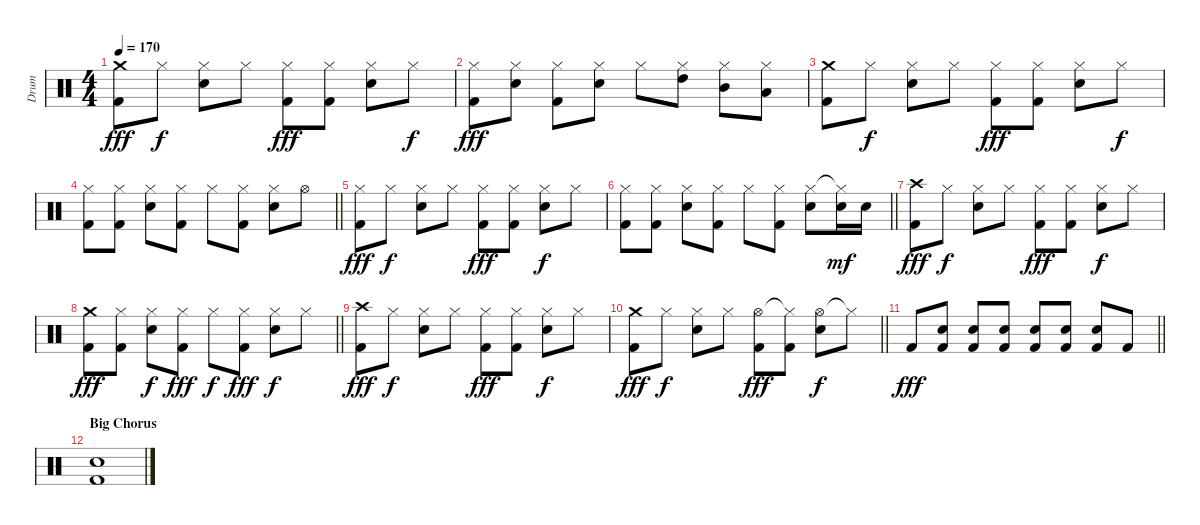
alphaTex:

\track ("Drum" "Drum") {instrument percussion}
\staff {score}
\articulation defaults
\ts (4 4)
\tempo 170
\clef neutral
\ks c
("Crash medium (hit)" "Kick (hit) 2").8{dy fff} "Hi-Hat (closed)".8{dy f} ("Hi-Hat (closed)" "Snare (hit) 2").8 "Hi-Hat (closed)".8 ("Hi-Hat (closed)" "Kick (hit) 2").8{dy fff} ("Hi-Hat (closed)" "Kick (hit) 2").8 ("Hi-Hat (closed)" "Snare (hit) 2").8 "Hi-Hat (closed)".8{dy f} |
("Hi-Hat (closed)" "Kick (hit) 2").8{dy fff} ("Hi-Hat (closed)" "Snare (hit) 2").8 ("Hi-Hat (closed)" "Kick (hit) 2").8 ("Hi-Hat (closed)" "Snare (hit) 2").8 "Hi-Hat (closed)".8 ("Hi-Hat (closed)" "High Tom (hit)").8 ("Hi-Hat (closed)" "Mid Tom (hit)").8 ("Hi-Hat (closed)" "Low Tom (hit)").8 |
("Crash medium (hit)" "Kick (hit) 2").8 "Hi-Hat (closed)".8{dy f} ("Hi-Hat (closed)" "Snare (hit) 2").8 "Hi-Hat (closed)".8 ("Hi-Hat (closed)" "Kick (hit) 2").8{dy fff} ("Hi-Hat (closed)" "Kick (hit) 2").8 ("Hi-Hat (closed)" "Snare (hit) 2").8 "Hi-Hat (closed)".8{dy f} |
\barLineRight lightlight
("Hi-Hat (closed)" "Kick (hit) 2").8 ("Hi-Hat (closed)" "Kick (hit) 2").8 ("Hi-Hat (closed)" "Snare (hit) 2").8 ("Hi-Hat (closed)" "Kick (hit) 2").8 "Hi-Hat (closed)".8 ("Hi-Hat (closed)" "Kick (hit) 2").8 ("Hi-Hat (closed)" "Snare (hit) 2").8 "Hi-Hat (open)".8 |
("Hi-Hat (closed)" "Kick (hit) 2").8{dy fff} "Hi-Hat (closed)".8{dy f} ("Hi-Hat (closed)" "Snare (hit) 2").8 "Hi-Hat (closed)".8 ("Hi-Hat (closed)" "Kick (hit) 2").8{dy fff} ("Hi-Hat (closed)" "Kick (hit) 2").8 ("Hi-Hat (closed)" "Snare (hit) 2").8{dy f} "Hi-Hat (closed)".8 |
\barLineRight lightlight
("Hi-Hat (closed)" "Kick (hit) 2").8 ("Hi-Hat (closed)" "Kick (hit) 2").8 ("Hi-Hat (closed)" "Snare (hit) 2").8 ("Hi-Hat (closed)" "Kick (hit) 2").8 "Hi-Hat (closed)".8 ("Hi-Hat (closed)" "Kick (hit) 2").8 ("Hi-Hat (closed)" "Snare (hit) 2").8 ("Hi-Hat (closed)"{t} "Snare (hit) 2").16{dy mf} "Snare (hit) 2".16 |
("Crash high (hit)" "Kick (hit) 2").8{dy fff} "Hi-Hat (closed)".8{dy f} ("Hi-Hat (closed)" "Snare (hit) 2").8 "Hi-Hat (closed)".8 ("Hi-Hat (closed)" "Kick (hit) 2").8{dy fff} ("Hi-Hat (closed)" "Kick (hit) 2").8 ("Hi-Hat (closed)" "Snare (hit) 2").8{dy f} "Hi-Hat (closed)".8 |
\barLineRight lightlight
("Crash medium (hit)" "Kick (hit) 2").8{dy fff} ("Hi-Hat (closed)" "Kick (hit) 2").8 ("Hi-Hat (closed)" "Snare (hit) 2").8{dy f} ("Hi-Hat (closed)" "Kick (hit) 2").8{dy fff} "Hi-Hat (closed)".8{dy f} ("Hi-Hat (closed)" "Kick (hit) 2").8{dy fff} ("Hi-Hat (closed)" "Snare (hit) 2").8{dy f} "Hi-Hat (closed)".8 |
("Crash high (hit)" "Kick (hit) 2").8{dy fff} "Hi-Hat (closed)".8{dy f} ("Hi-Hat (closed)" "Snare (hit) 2").8 "Hi-Hat (closed)".8 ("Hi-Hat (closed)" "Kick (hit) 2").8{dy fff} ("Hi-Hat (closed)" "Kick (hit) 2").8 ("Hi-Hat (closed)" "Snare (hit) 2").8{dy f} "Hi-Hat (closed)".8 |
\barLineRight lightlight
("Crash medium (hit)" "Kick (hit) 2").8{dy fff} "Hi-Hat (closed)".8{dy f} ("Hi-Hat (closed)" "Snare (hit) 2").8 "Hi-Hat (closed)".8 ("Hi-Hat (open)" "Kick (hit) 2").8{dy fff} ("Hi-Hat (closed)"{t} "Kick (hit) 2").8 ("Hi-Hat (open)" "Snare (hit) 2").8{dy f} "Hi-Hat (closed)"{t}.8 |
\barLineRight lightlight "Kick (hit) 2".8{dy fff}
("Snare (hit) 2" "Kick (hit) 2").8 ("Snare (hit) 2" "Kick (hit) 2").8 ("Snare (hit) 2" "Kick (hit) 2").8 ("Snare (hit) 2" "Kick (hit) 2").8 ("Snare (hit) 2" "Kick (hit) 2").8 ("Snare (hit) 2" "Kick (hit) 2").8 "Kick (hit) 2".8 |
\section ("" "Big Chorus")
("Snare (hit) 2" "Kick (hit) 2").1
